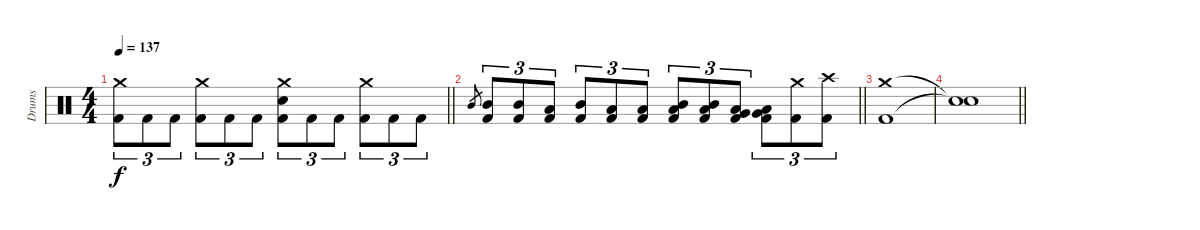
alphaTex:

\track ("Drums" "Drums") {instrument percussion}
\staff {score}
\articulation defaults
\ts (4 4)
\tempo 137
\clef neutral
\barLineRight lightlight
\ks c
("Crash medium (hit)" "Kick (hit) 2").8{tu (3 2) dy f} "Kick (hit) 2".8{tu (3 2)} "Kick (hit) 2".8{tu (3 2)} ("Crash medium (hit)" "Kick (hit) 2").8{tu (3 2)} "Kick (hit) 2".8{tu (3 2)} "Kick (hit) 2".8{tu (3 2)} ("Crash medium (hit)" "Electric Snare (hit)" "Kick (hit) 2").8{tu (3 2)} "Kick (hit) 2".8{tu (3 2)} "Kick (hit) 2".8{tu (3 2)} ("Crash medium (hit)" "Kick (hit) 2").8{tu (3 2)} "Kick (hit) 2".8{tu (3 2)} "Kick (hit) 2".8{tu (3 2)} |
\barLineRight lightlight "Mid Tom (hit)".8{gr}
("Mid Tom (hit)" "Kick (hit) 2").8{tu (3 2)} ("Mid Tom (hit)" "Kick (hit) 2").8{tu (3 2)} ("Low Tom (hit)" "Kick (hit) 2").8{tu (3 2)} ("Mid Tom (hit)" "Kick (hit) 2").8{tu (3 2)} ("Low Tom (hit)" "Kick (hit) 2").8{tu (3 2)} ("Low Tom (hit)" "Kick (hit) 2").8{tu (3 2)} ("Mid Tom (hit)" "Low Tom (hit)" "Kick (hit) 2").8{tu (3 2)} ("Mid Tom (hit)" "Low Tom (hit)" "Kick (hit) 2").8{tu (3 2)} ("Low Tom (hit)" "Very Low Tom (hit)" "Kick (hit) 2").8{tu (3 2)} ("Very Low Tom (hit)" "Low Floor Tom (hit)" "Kick (hit) 2").8{tu (3 2)} ("Crash medium (hit)" "Kick (hit) 2").8{tu (3 2)} ("Crash high (hit)" "Kick (hit) 2").8{tu (3 2)} |
("Crash medium (hit)" "Kick (hit) 2").1 |
\barLineRight lightlight
("Snare (hit)"{t} "Snare (hit)"{t}).1
